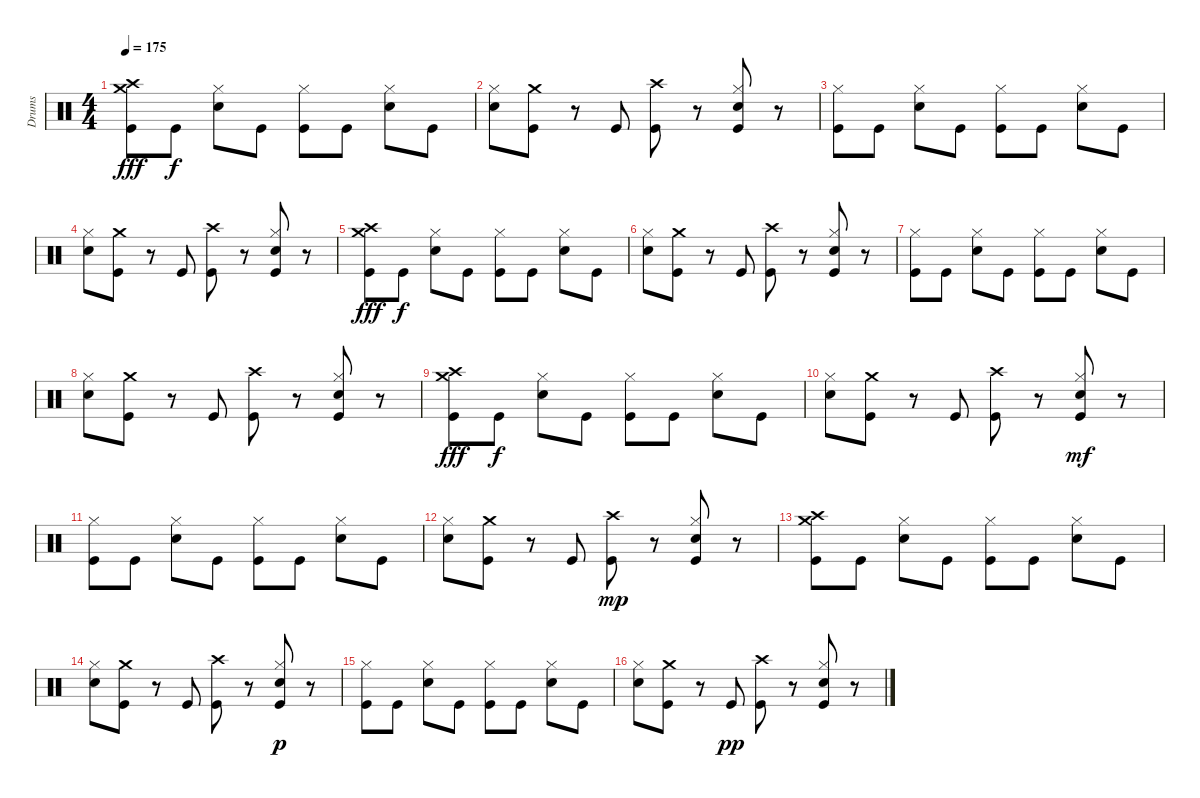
\track ("Drums" "Drums") {instrument percussion}
\staff {score}
\articulation defaults
\ts (4 4)
\tempo 175
\clef neutral
\ks c
("Crash high (hit)" "Crash medium (hit)" "Kick (hit)").8{dy fff} "Kick (hit)".8{dy f} ("Hi-Hat (closed)" "Electric Snare (hit)").8 "Kick (hit)".8 ("Hi-Hat (closed)" "Kick (hit)").8 "Kick (hit)".8 ("Hi-Hat (closed)" "Electric Snare (hit)").8 "Kick (hit)".8 |
("Electric Snare (hit)" "Hi-Hat (closed)").8 ("Crash medium (hit)" "Kick (hit)").8 r.8 "Kick (hit)".8 ("Crash high (hit)" "Kick (hit)").8 r.8 ("Hi-Hat (closed)" "Snare (hit) 2" "Kick (hit)").8 r.8 |
("Hi-Hat (closed)" "Kick (hit)").8 "Kick (hit)".8 ("Hi-Hat (closed)" "Electric Snare (hit)").8 "Kick (hit)".8 ("Hi-Hat (closed)" "Kick (hit)").8 "Kick (hit)".8 ("Hi-Hat (closed)" "Electric Snare (hit)").8 "Kick (hit)".8 |
("Electric Snare (hit)" "Hi-Hat (closed)").8 ("Crash medium (hit)" "Kick (hit)").8 r.8 "Kick (hit)".8 ("Crash high (hit)" "Kick (hit)").8 r.8 ("Hi-Hat (closed)" "Snare (hit) 2" "Kick (hit)").8 r.8 |
("Crash high (hit)" "Crash medium (hit)" "Kick (hit)").8{dy fff} "Kick (hit)".8{dy f} ("Hi-Hat (closed)" "Electric Snare (hit)").8 "Kick (hit)".8 ("Hi-Hat (closed)" "Kick (hit)").8 "Kick (hit)".8 ("Hi-Hat (closed)" "Electric Snare (hit)").8 "Kick (hit)".8 |
("Electric Snare (hit)" "Hi-Hat (closed)").8 ("Crash medium (hit)" "Kick (hit)").8 r.8 "Kick (hit)".8 ("Crash high (hit)" "Kick (hit)").8 r.8 ("Hi-Hat (closed)" "Snare (hit) 2" "Kick (hit)").8 r.8 |
("Hi-Hat (closed)" "Kick (hit)").8 "Kick (hit)".8 ("Hi-Hat (closed)" "Electric Snare (hit)").8 "Kick (hit)".8 ("Hi-Hat (closed)" "Kick (hit)").8 "Kick (hit)".8 ("Hi-Hat (closed)" "Electric Snare (hit)").8 "Kick (hit)".8 |
("Electric Snare (hit)" "Hi-Hat (closed)").8 ("Crash medium (hit)" "Kick (hit)").8 r.8 "Kick (hit)".8 ("Crash high (hit)" "Kick (hit)").8 r.8 ("Hi-Hat (closed)" "Snare (hit) 2" "Kick (hit)").8 r.8 |
("Crash high (hit)" "Crash medium (hit)" "Kick (hit)").8{dy fff} "Kick (hit)".8{dy f} ("Hi-Hat (closed)" "Electric Snare (hit)").8 "Kick (hit)".8 ("Hi-Hat (closed)" "Kick (hit)").8 "Kick (hit)".8 ("Hi-Hat (closed)" "Electric Snare (hit)").8 "Kick (hit)".8 |
("Electric Snare (hit)" "Hi-Hat (closed)").8 ("Crash medium (hit)" "Kick (hit)").8 r.8 "Kick (hit)".8 ("Crash high (hit)" "Kick (hit)").8 r.8 ("Hi-Hat (closed)" "Snare (hit) 2" "Kick (hit)").8{dy mf} r.8 |
("Hi-Hat (closed)" "Kick (hit)").8 "Kick (hit)".8 ("Hi-Hat (closed)" "Electric Snare (hit)").8 "Kick (hit)".8 ("Hi-Hat (closed)" "Kick (hit)").8 "Kick (hit)".8 ("Hi-Hat (closed)" "Electric Snare (hit)").8 "Kick (hit)".8 |
("Electric Snare (hit)" "Hi-Hat (closed)").8 ("Crash medium (hit)" "Kick (hit)").8 r.8 "Kick (hit)".8 ("Crash high (hit)" "Kick (hit)").8{dy mp} r.8 ("Hi-Hat (closed)" "Snare (hit) 2" "Kick (hit)").8 r.8 |
("Crash high (hit)" "Crash medium (hit)" "Kick (hit)").8 "Kick (hit)".8 ("Hi-Hat (closed)" "Electric Snare (hit)").8 "Kick (hit)".8 ("Hi-Hat (closed)" "Kick (hit)").8 "Kick (hit)".8 ("Hi-Hat (closed)" "Electric Snare (hit)").8 "Kick (hit)".8 |
("Electric Snare (hit)" "Hi-Hat (closed)").8 ("Crash medium (hit)" "Kick (hit)").8 r.8 "Kick (hit)".8 ("Crash high (hit)" "Kick (hit)").8 r.8 ("Hi-Hat (closed)" "Snare (hit) 2" "Kick (hit)").8{dy p} r.8 |
("Hi-Hat (closed)" "Kick (hit)").8 "Kick (hit)".8 ("Hi-Hat (closed)" "Electric Snare (hit)").8 "Kick (hit)".8 ("Hi-Hat (closed)" "Kick (hit)").8 "Kick (hit)".8 ("Hi-Hat (closed)" "Electric Snare (hit)").8 "Kick (hit)".8 |
("Electric Snare (hit)" "Hi-Hat (closed)").8 ("Crash medium (hit)" "Kick (hit)").8 r.8 "Kick (hit)".8{dy pp} ("Crash high (hit)" "Kick (hit)").8 r.8 ("Hi-Hat (closed)" "Snare (hit) 2" "Kick (hit)").8 r.8
